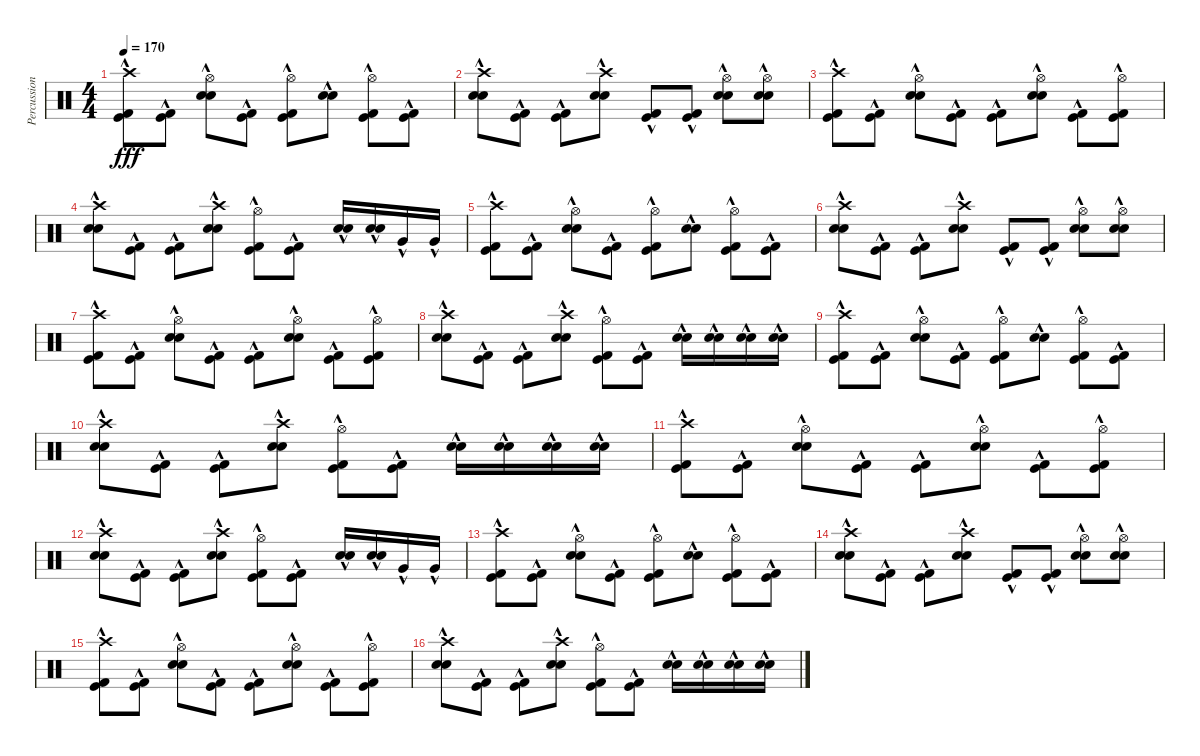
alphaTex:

\track ("Percussion" "Percussion") {instrument percussion}
\staff {score}
\articulation defaults
\ts (4 4)
\tempo 170
\clef neutral
\ks c
("Crash high (hit)" "Kick (hit) 2"{hac} "Kick (hit)"{hac}).8{dy fff} ("Kick (hit) 2"{hac} "Kick (hit)"{hac}).8 ("Hi-Hat (open)" "Snare (hit) 2"{hac} "Electric Snare (hit)"{hac}).8 ("Kick (hit) 2"{hac} "Kick (hit)"{hac}).8 ("Hi-Hat (open)" "Kick (hit) 2"{hac} "Kick (hit)"{hac}).8 ("Snare (hit) 2"{hac} "Electric Snare (hit)"{hac}).8 ("Hi-Hat (open)" "Kick (hit) 2"{hac} "Kick (hit)"{hac}).8 ("Kick (hit) 2"{hac} "Kick (hit)"{hac}).8 |
("Crash high (hit)" "Snare (hit) 2"{hac} "Electric Snare (hit)"{hac}).8 ("Kick (hit) 2"{hac} "Kick (hit)"{hac}).8 ("Kick (hit) 2"{hac} "Kick (hit)"{hac}).8 ("Crash high (hit)" "Snare (hit) 2"{hac} "Electric Snare (hit)"{hac}).8 ("Kick (hit) 2"{hac} "Kick (hit)"{hac}).8 ("Kick (hit) 2"{hac} "Kick (hit)"{hac}).8 ("Hi-Hat (open)" "Snare (hit) 2"{hac} "Electric Snare (hit)"{hac}).8 ("Hi-Hat (open)" "Snare (hit) 2"{hac} "Electric Snare (hit)"{hac}).8 |
("Crash high (hit)" "Kick (hit) 2"{hac} "Kick (hit)"{hac}).8 ("Kick (hit) 2"{hac} "Kick (hit)"{hac}).8 ("Hi-Hat (open)" "Snare (hit) 2"{hac} "Electric Snare (hit)"{hac}).8 ("Kick (hit) 2"{hac} "Kick (hit)"{hac}).8 ("Kick (hit) 2"{hac} "Kick (hit)"{hac}).8 ("Hi-Hat (open)" "Snare (hit) 2"{hac} "Electric Snare (hit)"{hac}).8 ("Kick (hit) 2"{hac} "Kick (hit)"{hac}).8 ("Hi-Hat (open)" "Kick (hit) 2"{hac} "Kick (hit)"{hac}).8 |
("Crash high (hit)" "Snare (hit) 2"{hac} "Electric Snare (hit)"{hac}).8 ("Kick (hit) 2"{hac} "Kick (hit)"{hac}).8 ("Kick (hit) 2"{hac} "Kick (hit)"{hac}).8 ("Crash high (hit)" "Snare (hit) 2"{hac} "Electric Snare (hit)"{hac}).8 ("Hi-Hat (open)" "Kick (hit) 2"{hac} "Kick (hit)"{hac}).8 ("Kick (hit) 2"{hac} "Kick (hit)"{hac}).8 ("Snare (hit) 2"{hac} "Electric Snare (hit)"{hac}).16 ("Snare (hit) 2"{hac} "Electric Snare (hit)"{hac}).16 "Very Low Tom (hit)"{hac}.16 "Very Low Tom (hit)"{hac}.16 |
("Crash high (hit)" "Kick (hit) 2"{hac} "Kick (hit)"{hac}).8 ("Kick (hit) 2"{hac} "Kick (hit)"{hac}).8 ("Hi-Hat (open)" "Snare (hit) 2"{hac} "Electric Snare (hit)"{hac}).8 ("Kick (hit) 2"{hac} "Kick (hit)"{hac}).8 ("Hi-Hat (open)" "Kick (hit) 2"{hac} "Kick (hit)"{hac}).8 ("Snare (hit) 2"{hac} "Electric Snare (hit)"{hac}).8 ("Hi-Hat (open)" "Kick (hit) 2"{hac} "Kick (hit)"{hac}).8 ("Kick (hit) 2"{hac} "Kick (hit)"{hac}).8 |
("Crash high (hit)" "Snare (hit) 2"{hac} "Electric Snare (hit)"{hac}).8 ("Kick (hit) 2"{hac} "Kick (hit)"{hac}).8 ("Kick (hit) 2"{hac} "Kick (hit)"{hac}).8 ("Crash high (hit)" "Snare (hit) 2"{hac} "Electric Snare (hit)"{hac}).8 ("Kick (hit) 2"{hac} "Kick (hit)"{hac}).8 ("Kick (hit) 2"{hac} "Kick (hit)"{hac}).8 ("Hi-Hat (open)" "Snare (hit) 2"{hac} "Electric Snare (hit)"{hac}).8 ("Hi-Hat (open)" "Snare (hit) 2"{hac} "Electric Snare (hit)"{hac}).8 |
("Crash high (hit)" "Kick (hit) 2"{hac} "Kick (hit)"{hac}).8 ("Kick (hit) 2"{hac} "Kick (hit)"{hac}).8 ("Hi-Hat (open)" "Snare (hit) 2"{hac} "Electric Snare (hit)"{hac}).8 ("Kick (hit) 2"{hac} "Kick (hit)"{hac}).8 ("Kick (hit) 2"{hac} "Kick (hit)"{hac}).8 ("Hi-Hat (open)" "Snare (hit) 2"{hac} "Electric Snare (hit)"{hac}).8 ("Kick (hit) 2"{hac} "Kick (hit)"{hac}).8 ("Hi-Hat (open)" "Kick (hit) 2"{hac} "Kick (hit)"{hac}).8 |
("Crash high (hit)" "Snare (hit) 2"{hac} "Electric Snare (hit)"{hac}).8 ("Kick (hit) 2"{hac} "Kick (hit)"{hac}).8 ("Kick (hit) 2"{hac} "Kick (hit)"{hac}).8 ("Crash high (hit)" "Snare (hit) 2"{hac} "Electric Snare (hit)"{hac}).8 ("Hi-Hat (open)" "Kick (hit) 2"{hac} "Kick (hit)"{hac}).8 ("Kick (hit) 2"{hac} "Kick (hit)"{hac}).8 ("Snare (hit) 2"{hac} "Electric Snare (hit)"{hac}).16 ("Snare (hit) 2"{hac} "Electric Snare (hit)"{hac}).16 ("Snare (hit) 2"{hac} "Electric Snare (hit)"{hac}).16 ("Snare (hit) 2"{hac} "Electric Snare (hit)"{hac}).16 |
("Crash high (hit)" "Kick (hit) 2"{hac} "Kick (hit)"{hac}).8 ("Kick (hit) 2"{hac} "Kick (hit)"{hac}).8 ("Hi-Hat (open)" "Snare (hit) 2"{hac} "Electric Snare (hit)"{hac}).8 ("Kick (hit) 2"{hac} "Kick (hit)"{hac}).8 ("Hi-Hat (open)" "Kick (hit) 2"{hac} "Kick (hit)"{hac}).8 ("Snare (hit) 2"{hac} "Electric Snare (hit)"{hac}).8 ("Hi-Hat (open)" "Kick (hit) 2"{hac} "Kick (hit)"{hac}).8 ("Kick (hit) 2"{hac} "Kick (hit)"{hac}).8 |
("Crash high (hit)" "Snare (hit) 2"{hac} "Electric Snare (hit)"{hac}).8 ("Kick (hit) 2"{hac} "Kick (hit)"{hac}).8 ("Kick (hit) 2"{hac} "Kick (hit)"{hac}).8 ("Crash high (hit)" "Snare (hit) 2"{hac} "Electric Snare (hit)"{hac}).8 ("Hi-Hat (open)" "Kick (hit) 2"{hac} "Kick (hit)"{hac}).8 ("Kick (hit) 2"{hac} "Kick (hit)"{hac}).8 ("Snare (hit) 2"{hac} "Electric Snare (hit)"{hac}).16 ("Snare (hit) 2"{hac} "Electric Snare (hit)"{hac}).16 ("Snare (hit) 2"{hac} "Electric Snare (hit)"{hac}).16 ("Snare (hit) 2"{hac} "Electric Snare (hit)"{hac}).16 |
("Crash high (hit)" "Kick (hit) 2"{hac} "Kick (hit)"{hac}).8 ("Kick (hit) 2"{hac} "Kick (hit)"{hac}).8 ("Hi-Hat (open)" "Snare (hit) 2"{hac} "Electric Snare (hit)"{hac}).8 ("Kick (hit) 2"{hac} "Kick (hit)"{hac}).8 ("Kick (hit) 2"{hac} "Kick (hit)"{hac}).8 ("Hi-Hat (open)" "Snare (hit) 2"{hac} "Electric Snare (hit)"{hac}).8 ("Kick (hit) 2"{hac} "Kick (hit)"{hac}).8 ("Hi-Hat (open)" "Kick (hit) 2"{hac} "Kick (hit)"{hac}).8 |
("Crash high (hit)" "Snare (hit) 2"{hac} "Electric Snare (hit)"{hac}).8 ("Kick (hit) 2"{hac} "Kick (hit)"{hac}).8 ("Kick (hit) 2"{hac} "Kick (hit)"{hac}).8 ("Crash high (hit)" "Snare (hit) 2"{hac} "Electric Snare (hit)"{hac}).8 ("Hi-Hat (open)" "Kick (hit) 2"{hac} "Kick (hit)"{hac}).8 ("Kick (hit) 2"{hac} "Kick (hit)"{hac}).8 ("Snare (hit) 2"{hac} "Electric Snare (hit)"{hac}).16 ("Snare (hit) 2"{hac} "Electric Snare (hit)"{hac}).16 "Very Low Tom (hit)"{hac}.16 "Very Low Tom (hit)"{hac}.16 |
("Crash high (hit)" "Kick (hit) 2"{hac} "Kick (hit)"{hac}).8 ("Kick (hit) 2"{hac} "Kick (hit)"{hac}).8 ("Hi-Hat (open)" "Snare (hit) 2"{hac} "Electric Snare (hit)"{hac}).8 ("Kick (hit) 2"{hac} "Kick (hit)"{hac}).8 ("Hi-Hat (open)" "Kick (hit) 2"{hac} "Kick (hit)"{hac}).8 ("Snare (hit) 2"{hac} "Electric Snare (hit)"{hac}).8 ("Hi-Hat (open)" "Kick (hit) 2"{hac} "Kick (hit)"{hac}).8 ("Kick (hit) 2"{hac} "Kick (hit)"{hac}).8 |
("Crash high (hit)" "Snare (hit) 2"{hac} "Electric Snare (hit)"{hac}).8 ("Kick (hit) 2"{hac} "Kick (hit)"{hac}).8 ("Kick (hit) 2"{hac} "Kick (hit)"{hac}).8 ("Crash high (hit)" "Snare (hit) 2"{hac} "Electric Snare (hit)"{hac}).8 ("Kick (hit) 2"{hac} "Kick (hit)"{hac}).8 ("Kick (hit) 2"{hac} "Kick (hit)"{hac}).8 ("Hi-Hat (open)" "Snare (hit) 2"{hac} "Electric Snare (hit)"{hac}).8 ("Hi-Hat (open)" "Snare (hit) 2"{hac} "Electric Snare (hit)"{hac}).8 |
("Crash high (hit)" "Kick (hit) 2"{hac} "Kick (hit)"{hac}).8 ("Kick (hit) 2"{hac} "Kick (hit)"{hac}).8 ("Hi-Hat (open)" "Snare (hit) 2"{hac} "Electric Snare (hit)"{hac}).8 ("Kick (hit) 2"{hac} "Kick (hit)"{hac}).8 ("Kick (hit) 2"{hac} "Kick (hit)"{hac}).8 ("Hi-Hat (open)" "Snare (hit) 2"{hac} "Electric Snare (hit)"{hac}).8 ("Kick (hit) 2"{hac} "Kick (hit)"{hac}).8 ("Hi-Hat (open)" "Kick (hit) 2"{hac} "Kick (hit)"{hac}).8 |
("Crash high (hit)" "Snare (hit) 2"{hac} "Electric Snare (hit)"{hac}).8 ("Kick (hit) 2"{hac} "Kick (hit)"{hac}).8 ("Kick (hit) 2"{hac} "Kick (hit)"{hac}).8 ("Crash high (hit)" "Snare (hit) 2"{hac} "Electric Snare (hit)"{hac}).8 ("Hi-Hat (open)" "Kick (hit) 2"{hac} "Kick (hit)"{hac}).8 ("Kick (hit) 2"{hac} "Kick (hit)"{hac}).8 ("Snare (hit) 2"{hac} "Electric Snare (hit)"{hac}).16 ("Snare (hit) 2"{hac} "Electric Snare (hit)"{hac}).16 ("Snare (hit) 2"{hac} "Electric Snare (hit)"{hac}).16 ("Snare (hit) 2"{hac} "Electric Snare (hit)"{hac}).16
